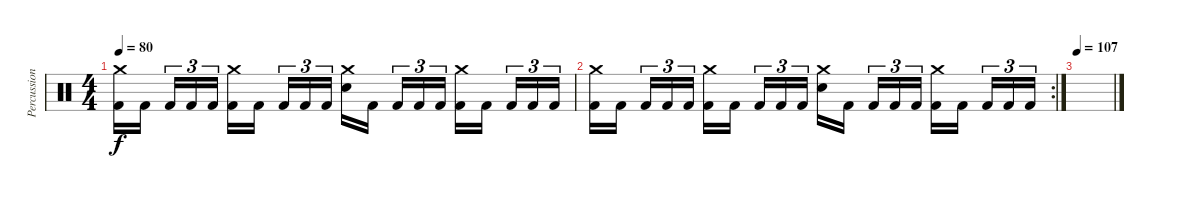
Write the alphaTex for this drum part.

\track ("Percussion" "Percussion") {instrument percussion}
\staff {score}
\articulation defaults
\ts (4 4)
\tempo 80
\clef neutral
\ks c
("Crash medium (hit)" "Kick (hit) 2").16{dy f} "Kick (hit) 2".16{beam splitsecondary} "Kick (hit) 2".16{tu (3 2)} "Kick (hit) 2".16{tu (3 2)} "Kick (hit) 2".16{tu (3 2)} ("Crash medium (hit)" "Kick (hit) 2").16 "Kick (hit) 2".16{beam splitsecondary} "Kick (hit) 2".16{tu (3 2)} "Kick (hit) 2".16{tu (3 2)} "Kick (hit) 2".16{tu (3 2)} ("Crash medium (hit)" "Electric Snare (hit)").16 "Kick (hit) 2".16{beam splitsecondary} "Kick (hit) 2".16{tu (3 2)} "Kick (hit) 2".16{tu (3 2)} "Kick (hit) 2".16{tu (3 2)} ("Crash medium (hit)" "Kick (hit) 2").16 "Kick (hit) 2".16{beam splitsecondary} "Kick (hit) 2".16{tu (3 2)} "Kick (hit) 2".16{tu (3 2)} "Kick (hit) 2".16{tu (3 2)} |
\rc 2
("Crash medium (hit)" "Kick (hit) 2").16 "Kick (hit) 2".16{beam splitsecondary} "Kick (hit) 2".16{tu (3 2)} "Kick (hit) 2".16{tu (3 2)} "Kick (hit) 2".16{tu (3 2)} ("Crash medium (hit)" "Kick (hit) 2").16 "Kick (hit) 2".16{beam splitsecondary} "Kick (hit) 2".16{tu (3 2)} "Kick (hit) 2".16{tu (3 2)} "Kick (hit) 2".16{tu (3 2)} ("Crash medium (hit)" "Electric Snare (hit)").16 "Kick (hit) 2".16{beam splitsecondary} "Kick (hit) 2".16{tu (3 2)} "Kick (hit) 2".16{tu (3 2)} "Kick (hit) 2".16{tu (3 2)} ("Crash medium (hit)" "Kick (hit) 2").16 "Kick (hit) 2".16{beam splitsecondary} "Kick (hit) 2".16{tu (3 2)} "Kick (hit) 2".16{tu (3 2)} "Kick (hit) 2".16{tu (3 2)} |
\tempo 107
